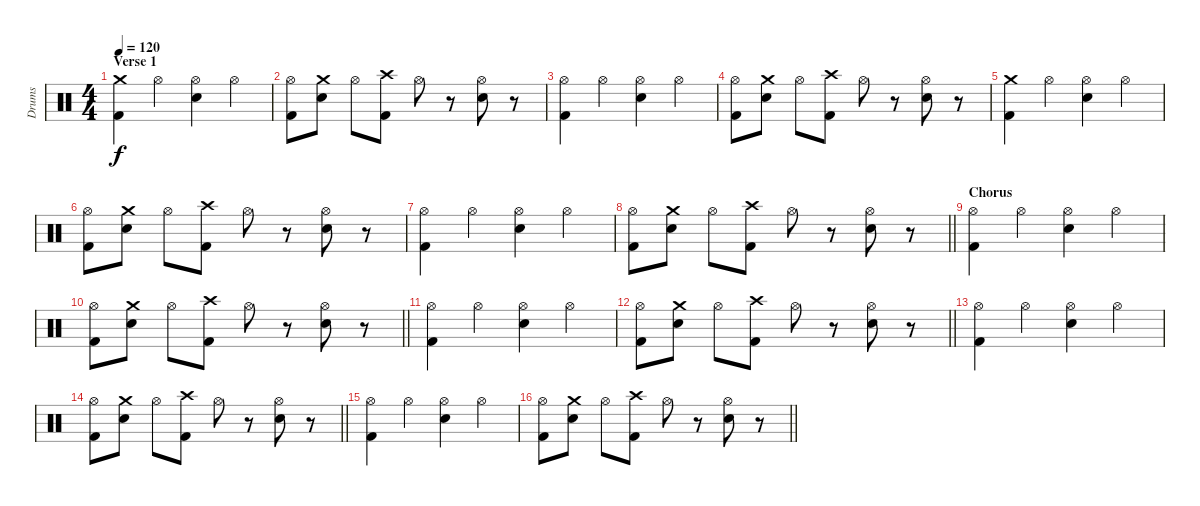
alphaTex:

\track ("Drums" "Drums") {instrument percussion}
\staff {score}
\articulation defaults
\ts (4 4)
\section ("" "Verse 1")
\tempo 120
\clef neutral
\ks c
("Crash medium (hit)" "Kick (hit) 2").4{dy f} "Hi-Hat (open)".4 ("Hi-Hat (open)" "Electric Snare (hit)").4 "Hi-Hat (open)".4 |
("Hi-Hat (open)" "Kick (hit) 2").8 ("Crash medium (hit)" "Electric Snare (hit)").8 "Hi-Hat (open)".8 ("Crash high (hit)" "Kick (hit) 2").8 "Hi-Hat (open)".8 r.8 ("Hi-Hat (open)" "Electric Snare (hit)").8 r.8 |
("Hi-Hat (open)" "Kick (hit) 2").4 "Hi-Hat (open)".4 ("Hi-Hat (open)" "Electric Snare (hit)").4 "Hi-Hat (open)".4 |
("Hi-Hat (open)" "Kick (hit) 2").8 ("Crash medium (hit)" "Electric Snare (hit)").8 "Hi-Hat (open)".8 ("Crash high (hit)" "Kick (hit) 2").8 "Hi-Hat (open)".8 r.8 ("Hi-Hat (open)" "Electric Snare (hit)").8 r.8 |
("Crash medium (hit)" "Kick (hit) 2").4 "Hi-Hat (open)".4 ("Hi-Hat (open)" "Electric Snare (hit)").4 "Hi-Hat (open)".4 |
("Hi-Hat (open)" "Kick (hit) 2").8 ("Crash medium (hit)" "Electric Snare (hit)").8 "Hi-Hat (open)".8 ("Crash high (hit)" "Kick (hit) 2").8 "Hi-Hat (open)".8 r.8 ("Hi-Hat (open)" "Electric Snare (hit)").8 r.8 |
("Hi-Hat (open)" "Kick (hit) 2").4 "Hi-Hat (open)".4 ("Hi-Hat (open)" "Electric Snare (hit)").4 "Hi-Hat (open)".4 |
\barLineRight lightlight
("Hi-Hat (open)" "Kick (hit) 2").8 ("Crash medium (hit)" "Electric Snare (hit)").8 "Hi-Hat (open)".8 ("Crash high (hit)" "Kick (hit) 2").8 "Hi-Hat (open)".8 r.8 ("Hi-Hat (open)" "Electric Snare (hit)").8 r.8 |
\section ("" "Chorus")
("Hi-Hat (open)" "Kick (hit) 2").4 "Hi-Hat (open)".4 ("Hi-Hat (open)" "Electric Snare (hit)").4 "Hi-Hat (open)".4 |
\barLineRight lightlight
("Hi-Hat (open)" "Kick (hit) 2").8 ("Crash medium (hit)" "Electric Snare (hit)").8 "Hi-Hat (open)".8 ("Crash high (hit)" "Kick (hit) 2").8 "Hi-Hat (open)".8 r.8 ("Hi-Hat (open)" "Electric Snare (hit)").8 r.8 |
("Hi-Hat (open)" "Kick (hit) 2").4 "Hi-Hat (open)".4 ("Hi-Hat (open)" "Electric Snare (hit)").4 "Hi-Hat (open)".4 |
\barLineRight lightlight
("Hi-Hat (open)" "Kick (hit) 2").8 ("Crash medium (hit)" "Electric Snare (hit)").8 "Hi-Hat (open)".8 ("Crash high (hit)" "Kick (hit) 2").8 "Hi-Hat (open)".8 r.8 ("Hi-Hat (open)" "Electric Snare (hit)").8 r.8 |
("Hi-Hat (open)" "Kick (hit) 2").4 "Hi-Hat (open)".4 ("Hi-Hat (open)" "Electric Snare (hit)").4 "Hi-Hat (open)".4 |
\barLineRight lightlight
("Hi-Hat (open)" "Kick (hit) 2").8 ("Crash medium (hit)" "Electric Snare (hit)").8 "Hi-Hat (open)".8 ("Crash high (hit)" "Kick (hit) 2").8 "Hi-Hat (open)".8 r.8 ("Hi-Hat (open)" "Electric Snare (hit)").8 r.8 |
("Hi-Hat (open)" "Kick (hit) 2").4 "Hi-Hat (open)".4 ("Hi-Hat (open)" "Electric Snare (hit)").4 "Hi-Hat (open)".4 |
\barLineRight lightlight
("Hi-Hat (open)" "Kick (hit) 2").8 ("Crash medium (hit)" "Electric Snare (hit)").8 "Hi-Hat (open)".8 ("Crash high (hit)" "Kick (hit) 2").8 "Hi-Hat (open)".8 r.8 ("Hi-Hat (open)" "Electric Snare (hit)").8 r.8
